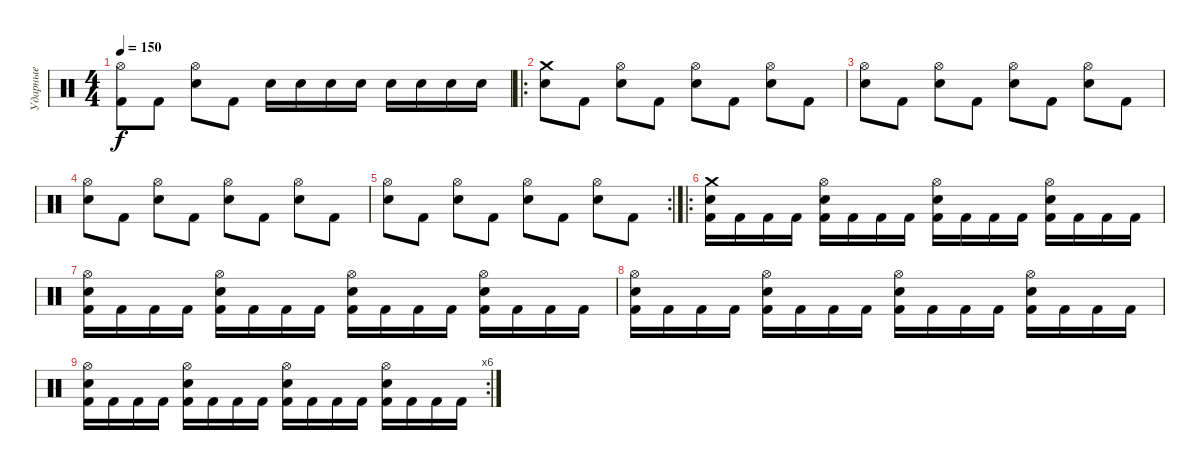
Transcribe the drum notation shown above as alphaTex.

\track ("Ударные" "Ударные") {instrument percussion}
\staff {score}
\articulation defaults
\ts (4 4)
\tempo 150
\clef neutral
\ks c
("Hi-Hat (open)" "Kick (hit) 2").8{dy f} "Kick (hit) 2".8 ("Hi-Hat (open)" "Snare (hit) 2").8 "Kick (hit) 2".8 "Electric Snare (hit)".16 "Electric Snare (hit)".16 "Electric Snare (hit)".16 "Electric Snare (hit)".16 "Electric Snare (hit)".16 "Electric Snare (hit)".16 "Electric Snare (hit)".16 "Electric Snare (hit)".16 |
\ro
("Crash medium (hit)" "Electric Snare (hit)").8 "Kick (hit) 2".8 ("Hi-Hat (open)" "Electric Snare (hit)").8 "Kick (hit) 2".8 ("Hi-Hat (open)" "Electric Snare (hit)").8 "Kick (hit) 2".8 ("Hi-Hat (open)" "Electric Snare (hit)").8 "Kick (hit) 2".8 |
("Hi-Hat (open)" "Electric Snare (hit)").8 "Kick (hit) 2".8 ("Hi-Hat (open)" "Electric Snare (hit)").8 "Kick (hit) 2".8 ("Hi-Hat (open)" "Electric Snare (hit)").8 "Kick (hit) 2".8 ("Hi-Hat (open)" "Electric Snare (hit)").8 "Kick (hit) 2".8 |
("Hi-Hat (open)" "Electric Snare (hit)").8 "Kick (hit) 2".8 ("Hi-Hat (open)" "Electric Snare (hit)").8 "Kick (hit) 2".8 ("Hi-Hat (open)" "Electric Snare (hit)").8 "Kick (hit) 2".8 ("Hi-Hat (open)" "Electric Snare (hit)").8 "Kick (hit) 2".8 |
\rc 2
("Hi-Hat (open)" "Electric Snare (hit)").8 "Kick (hit) 2".8 ("Hi-Hat (open)" "Electric Snare (hit)").8 "Kick (hit) 2".8 ("Hi-Hat (open)" "Electric Snare (hit)").8 "Kick (hit) 2".8 ("Hi-Hat (open)" "Electric Snare (hit)").8 "Kick (hit) 2".8 |
\ro
("Crash medium (hit)" "Electric Snare (hit)" "Kick (hit) 2").16 "Kick (hit) 2".16 "Kick (hit) 2".16 "Kick (hit) 2".16 ("Hi-Hat (open)" "Electric Snare (hit)" "Kick (hit) 2").16 "Kick (hit) 2".16 "Kick (hit) 2".16 "Kick (hit) 2".16 ("Hi-Hat (open)" "Electric Snare (hit)" "Kick (hit) 2").16 "Kick (hit) 2".16 "Kick (hit) 2".16 "Kick (hit) 2".16 ("Hi-Hat (open)" "Electric Snare (hit)" "Kick (hit) 2").16 "Kick (hit) 2".16 "Kick (hit) 2".16 "Kick (hit) 2".16 |
("Hi-Hat (open)" "Electric Snare (hit)" "Kick (hit) 2").16 "Kick (hit) 2".16 "Kick (hit) 2".16 "Kick (hit) 2".16 ("Hi-Hat (open)" "Electric Snare (hit)" "Kick (hit) 2").16 "Kick (hit) 2".16 "Kick (hit) 2".16 "Kick (hit) 2".16 ("Hi-Hat (open)" "Electric Snare (hit)" "Kick (hit) 2").16 "Kick (hit) 2".16 "Kick (hit) 2".16 "Kick (hit) 2".16 ("Hi-Hat (open)" "Electric Snare (hit)" "Kick (hit) 2").16 "Kick (hit) 2".16 "Kick (hit) 2".16 "Kick (hit) 2".16 |
("Hi-Hat (open)" "Electric Snare (hit)" "Kick (hit) 2").16 "Kick (hit) 2".16 "Kick (hit) 2".16 "Kick (hit) 2".16 ("Hi-Hat (open)" "Electric Snare (hit)" "Kick (hit) 2").16 "Kick (hit) 2".16 "Kick (hit) 2".16 "Kick (hit) 2".16 ("Hi-Hat (open)" "Electric Snare (hit)" "Kick (hit) 2").16 "Kick (hit) 2".16 "Kick (hit) 2".16 "Kick (hit) 2".16 ("Hi-Hat (open)" "Electric Snare (hit)" "Kick (hit) 2").16 "Kick (hit) 2".16 "Kick (hit) 2".16 "Kick (hit) 2".16 |
\rc 6
("Hi-Hat (open)" "Electric Snare (hit)" "Kick (hit) 2").16 "Kick (hit) 2".16 "Kick (hit) 2".16 "Kick (hit) 2".16 ("Hi-Hat (open)" "Electric Snare (hit)" "Kick (hit) 2").16 "Kick (hit) 2".16 "Kick (hit) 2".16 "Kick (hit) 2".16 ("Hi-Hat (open)" "Electric Snare (hit)" "Kick (hit) 2").16 "Kick (hit) 2".16 "Kick (hit) 2".16 "Kick (hit) 2".16 ("Hi-Hat (open)" "Electric Snare (hit)" "Kick (hit) 2").16 "Kick (hit) 2".16 "Kick (hit) 2".16 "Kick (hit) 2".16
